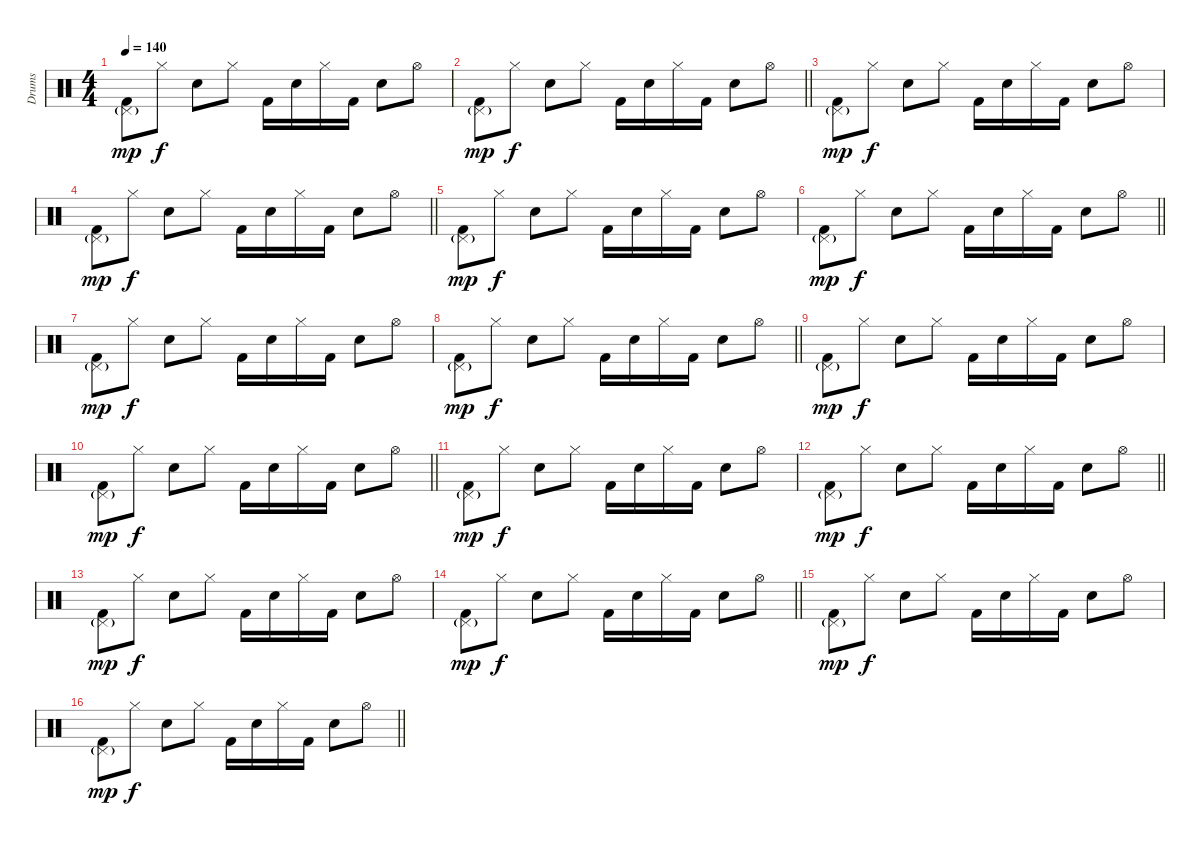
\track ("Drums" "Drums") {instrument percussion}
\staff {score}
\articulation defaults
\ts (4 4)
\tempo 140
\clef neutral
\ks c
("Pedal Hi-Hat (hit)"{g} "Kick (hit) 2").8{dy mp} "Hi-Hat (closed)".8{dy f} "Snare (hit) 2".8 "Hi-Hat (closed)".8 "Kick (hit) 2".16 "Snare (hit) 2".16 "Hi-Hat (closed)".16 "Kick (hit) 2".16 "Snare (hit) 2".8 "Hi-Hat (open)".8 |
\barLineRight lightlight
("Pedal Hi-Hat (hit)"{g} "Kick (hit) 2").8{dy mp} "Hi-Hat (closed)".8{dy f} "Snare (hit) 2".8 "Hi-Hat (closed)".8 "Kick (hit) 2".16 "Snare (hit) 2".16 "Hi-Hat (closed)".16 "Kick (hit) 2".16 "Snare (hit) 2".8 "Hi-Hat (open)".8 |
("Pedal Hi-Hat (hit)"{g} "Kick (hit) 2").8{dy mp} "Hi-Hat (closed)".8{dy f} "Snare (hit) 2".8 "Hi-Hat (closed)".8 "Kick (hit) 2".16 "Snare (hit) 2".16 "Hi-Hat (closed)".16 "Kick (hit) 2".16 "Snare (hit) 2".8 "Hi-Hat (open)".8 |
\barLineRight lightlight
("Pedal Hi-Hat (hit)"{g} "Kick (hit) 2").8{dy mp} "Hi-Hat (closed)".8{dy f} "Snare (hit) 2".8 "Hi-Hat (closed)".8 "Kick (hit) 2".16 "Snare (hit) 2".16 "Hi-Hat (closed)".16 "Kick (hit) 2".16 "Snare (hit) 2".8 "Hi-Hat (open)".8 |
("Pedal Hi-Hat (hit)"{g} "Kick (hit) 2").8{dy mp} "Hi-Hat (closed)".8{dy f} "Snare (hit) 2".8 "Hi-Hat (closed)".8 "Kick (hit) 2".16 "Snare (hit) 2".16 "Hi-Hat (closed)".16 "Kick (hit) 2".16 "Snare (hit) 2".8 "Hi-Hat (open)".8 |
\barLineRight lightlight
("Pedal Hi-Hat (hit)"{g} "Kick (hit) 2").8{dy mp} "Hi-Hat (closed)".8{dy f} "Snare (hit) 2".8 "Hi-Hat (closed)".8 "Kick (hit) 2".16 "Snare (hit) 2".16 "Hi-Hat (closed)".16 "Kick (hit) 2".16 "Snare (hit) 2".8 "Hi-Hat (open)".8 |
("Pedal Hi-Hat (hit)"{g} "Kick (hit) 2").8{dy mp} "Hi-Hat (closed)".8{dy f} "Snare (hit) 2".8 "Hi-Hat (closed)".8 "Kick (hit) 2".16 "Snare (hit) 2".16 "Hi-Hat (closed)".16 "Kick (hit) 2".16 "Snare (hit) 2".8 "Hi-Hat (open)".8 |
\barLineRight lightlight
("Pedal Hi-Hat (hit)"{g} "Kick (hit) 2").8{dy mp} "Hi-Hat (closed)".8{dy f} "Snare (hit) 2".8 "Hi-Hat (closed)".8 "Kick (hit) 2".16 "Snare (hit) 2".16 "Hi-Hat (closed)".16 "Kick (hit) 2".16 "Snare (hit) 2".8 "Hi-Hat (open)".8 |
("Pedal Hi-Hat (hit)"{g} "Kick (hit) 2").8{dy mp} "Hi-Hat (closed)".8{dy f} "Snare (hit) 2".8 "Hi-Hat (closed)".8 "Kick (hit) 2".16 "Snare (hit) 2".16 "Hi-Hat (closed)".16 "Kick (hit) 2".16 "Snare (hit) 2".8 "Hi-Hat (open)".8 |
\barLineRight lightlight
("Pedal Hi-Hat (hit)"{g} "Kick (hit) 2").8{dy mp} "Hi-Hat (closed)".8{dy f} "Snare (hit) 2".8 "Hi-Hat (closed)".8 "Kick (hit) 2".16 "Snare (hit) 2".16 "Hi-Hat (closed)".16 "Kick (hit) 2".16 "Snare (hit) 2".8 "Hi-Hat (open)".8 |
("Pedal Hi-Hat (hit)"{g} "Kick (hit) 2").8{dy mp} "Hi-Hat (closed)".8{dy f} "Snare (hit) 2".8 "Hi-Hat (closed)".8 "Kick (hit) 2".16 "Snare (hit) 2".16 "Hi-Hat (closed)".16 "Kick (hit) 2".16 "Snare (hit) 2".8 "Hi-Hat (open)".8 |
\barLineRight lightlight
("Pedal Hi-Hat (hit)"{g} "Kick (hit) 2").8{dy mp} "Hi-Hat (closed)".8{dy f} "Snare (hit) 2".8 "Hi-Hat (closed)".8 "Kick (hit) 2".16 "Snare (hit) 2".16 "Hi-Hat (closed)".16 "Kick (hit) 2".16 "Snare (hit) 2".8 "Hi-Hat (open)".8 |
("Pedal Hi-Hat (hit)"{g} "Kick (hit) 2").8{dy mp} "Hi-Hat (closed)".8{dy f} "Snare (hit) 2".8 "Hi-Hat (closed)".8 "Kick (hit) 2".16 "Snare (hit) 2".16 "Hi-Hat (closed)".16 "Kick (hit) 2".16 "Snare (hit) 2".8 "Hi-Hat (open)".8 |
\barLineRight lightlight
("Pedal Hi-Hat (hit)"{g} "Kick (hit) 2").8{dy mp} "Hi-Hat (closed)".8{dy f} "Snare (hit) 2".8 "Hi-Hat (closed)".8 "Kick (hit) 2".16 "Snare (hit) 2".16 "Hi-Hat (closed)".16 "Kick (hit) 2".16 "Snare (hit) 2".8 "Hi-Hat (open)".8 |
("Pedal Hi-Hat (hit)"{g} "Kick (hit) 2").8{dy mp} "Hi-Hat (closed)".8{dy f} "Snare (hit) 2".8 "Hi-Hat (closed)".8 "Kick (hit) 2".16 "Snare (hit) 2".16 "Hi-Hat (closed)".16 "Kick (hit) 2".16 "Snare (hit) 2".8 "Hi-Hat (open)".8 |
\barLineRight lightlight
("Pedal Hi-Hat (hit)"{g} "Kick (hit) 2").8{dy mp} "Hi-Hat (closed)".8{dy f} "Snare (hit) 2".8 "Hi-Hat (closed)".8 "Kick (hit) 2".16 "Snare (hit) 2".16 "Hi-Hat (closed)".16 "Kick (hit) 2".16 "Snare (hit) 2".8 "Hi-Hat (open)".8
